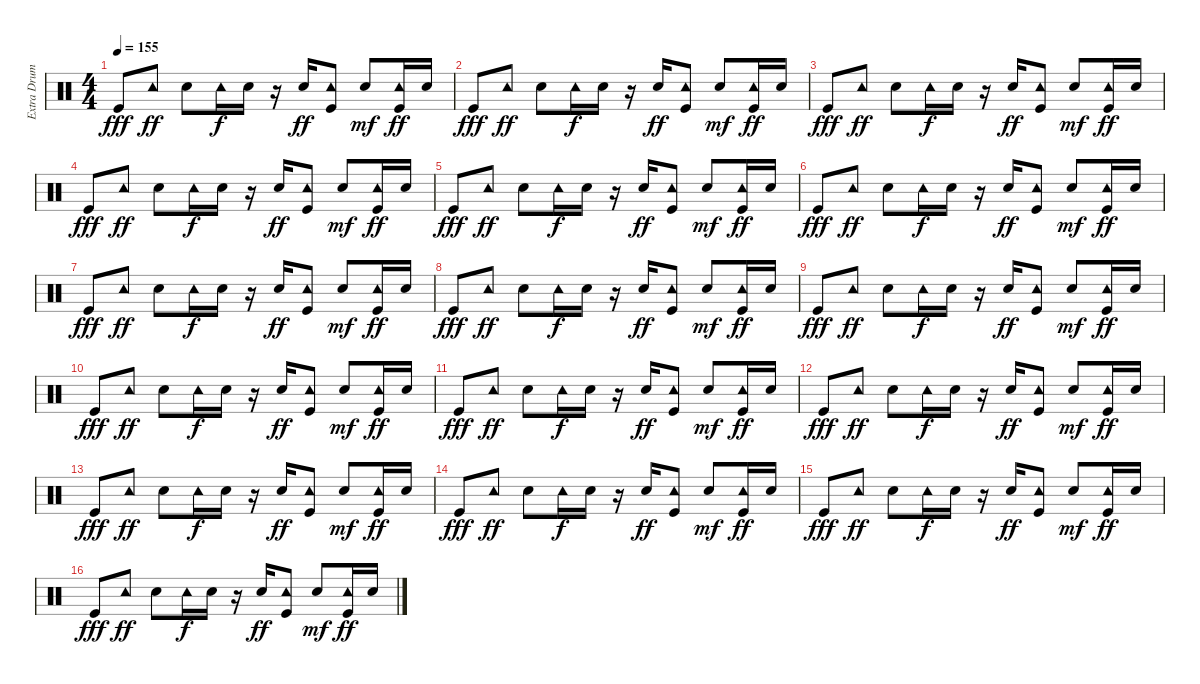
\track ("Extra Drums" "Extra Drum") {instrument percussion}
\staff {score}
\articulation defaults
\ts (4 4)
\tempo 155
\clef neutral
\ks c "Kick (hit)".8{dy fff} "Tambourine (hit)".8{dy ff} "Electric Snare (hit)".8 "Tambourine (hit)".16{dy f} "Electric Snare (hit)".16
r.16 "Electric Snare (hit)".16{dy ff} ("Kick (hit)" "Tambourine (hit)").8 "Electric Snare (hit)".8{dy mf} ("Kick (hit)" "Tambourine (hit)").16{dy ff} "Electric Snare (hit)".16 |
"Kick (hit)".8{dy fff} "Tambourine (hit)".8{dy ff} "Electric Snare (hit)".8 "Tambourine (hit)".16{dy f} "Electric Snare (hit)".16 r.16 "Electric Snare (hit)".16{dy ff} ("Kick (hit)" "Tambourine (hit)").8 "Electric Snare (hit)".8{dy mf} ("Kick (hit)" "Tambourine (hit)").16{dy ff} "Electric Snare (hit)".16 |
"Kick (hit)".8{dy fff} "Tambourine (hit)".8{dy ff} "Electric Snare (hit)".8 "Tambourine (hit)".16{dy f} "Electric Snare (hit)".16 r.16 "Electric Snare (hit)".16{dy ff} ("Kick (hit)" "Tambourine (hit)").8 "Electric Snare (hit)".8{dy mf} ("Kick (hit)" "Tambourine (hit)").16{dy ff} "Electric Snare (hit)".16 |
"Kick (hit)".8{dy fff} "Tambourine (hit)".8{dy ff} "Electric Snare (hit)".8 "Tambourine (hit)".16{dy f} "Electric Snare (hit)".16 r.16 "Electric Snare (hit)".16{dy ff} ("Kick (hit)" "Tambourine (hit)").8 "Electric Snare (hit)".8{dy mf} ("Kick (hit)" "Tambourine (hit)").16{dy ff} "Electric Snare (hit)".16 |
"Kick (hit)".8{dy fff} "Tambourine (hit)".8{dy ff} "Electric Snare (hit)".8 "Tambourine (hit)".16{dy f} "Electric Snare (hit)".16 r.16 "Electric Snare (hit)".16{dy ff} ("Kick (hit)" "Tambourine (hit)").8 "Electric Snare (hit)".8{dy mf} ("Kick (hit)" "Tambourine (hit)").16{dy ff} "Electric Snare (hit)".16 |
"Kick (hit)".8{dy fff} "Tambourine (hit)".8{dy ff} "Electric Snare (hit)".8 "Tambourine (hit)".16{dy f} "Electric Snare (hit)".16 r.16 "Electric Snare (hit)".16{dy ff} ("Kick (hit)" "Tambourine (hit)").8 "Electric Snare (hit)".8{dy mf} ("Kick (hit)" "Tambourine (hit)").16{dy ff} "Electric Snare (hit)".16 |
"Kick (hit)".8{dy fff} "Tambourine (hit)".8{dy ff} "Electric Snare (hit)".8 "Tambourine (hit)".16{dy f} "Electric Snare (hit)".16 r.16 "Electric Snare (hit)".16{dy ff} ("Kick (hit)" "Tambourine (hit)").8 "Electric Snare (hit)".8{dy mf} ("Kick (hit)" "Tambourine (hit)").16{dy ff} "Electric Snare (hit)".16 |
"Kick (hit)".8{dy fff} "Tambourine (hit)".8{dy ff} "Electric Snare (hit)".8 "Tambourine (hit)".16{dy f} "Electric Snare (hit)".16 r.16 "Electric Snare (hit)".16{dy ff} ("Kick (hit)" "Tambourine (hit)").8 "Electric Snare (hit)".8{dy mf} ("Kick (hit)" "Tambourine (hit)").16{dy ff} "Electric Snare (hit)".16 |
"Kick (hit)".8{dy fff} "Tambourine (hit)".8{dy ff} "Electric Snare (hit)".8 "Tambourine (hit)".16{dy f} "Electric Snare (hit)".16 r.16 "Electric Snare (hit)".16{dy ff} ("Kick (hit)" "Tambourine (hit)").8 "Electric Snare (hit)".8{dy mf} ("Kick (hit)" "Tambourine (hit)").16{dy ff} "Electric Snare (hit)".16 |
"Kick (hit)".8{dy fff} "Tambourine (hit)".8{dy ff} "Electric Snare (hit)".8 "Tambourine (hit)".16{dy f} "Electric Snare (hit)".16 r.16 "Electric Snare (hit)".16{dy ff} ("Kick (hit)" "Tambourine (hit)").8 "Electric Snare (hit)".8{dy mf} ("Kick (hit)" "Tambourine (hit)").16{dy ff} "Electric Snare (hit)".16 |
"Kick (hit)".8{dy fff} "Tambourine (hit)".8{dy ff} "Electric Snare (hit)".8 "Tambourine (hit)".16{dy f} "Electric Snare (hit)".16 r.16 "Electric Snare (hit)".16{dy ff} ("Kick (hit)" "Tambourine (hit)").8 "Electric Snare (hit)".8{dy mf} ("Kick (hit)" "Tambourine (hit)").16{dy ff} "Electric Snare (hit)".16 |
"Kick (hit)".8{dy fff} "Tambourine (hit)".8{dy ff} "Electric Snare (hit)".8 "Tambourine (hit)".16{dy f} "Electric Snare (hit)".16 r.16 "Electric Snare (hit)".16{dy ff} ("Kick (hit)" "Tambourine (hit)").8 "Electric Snare (hit)".8{dy mf} ("Kick (hit)" "Tambourine (hit)").16{dy ff} "Electric Snare (hit)".16 |
"Kick (hit)".8{dy fff} "Tambourine (hit)".8{dy ff} "Electric Snare (hit)".8 "Tambourine (hit)".16{dy f} "Electric Snare (hit)".16 r.16 "Electric Snare (hit)".16{dy ff} ("Kick (hit)" "Tambourine (hit)").8 "Electric Snare (hit)".8{dy mf} ("Kick (hit)" "Tambourine (hit)").16{dy ff} "Electric Snare (hit)".16 |
"Kick (hit)".8{dy fff} "Tambourine (hit)".8{dy ff} "Electric Snare (hit)".8 "Tambourine (hit)".16{dy f} "Electric Snare (hit)".16 r.16 "Electric Snare (hit)".16{dy ff} ("Kick (hit)" "Tambourine (hit)").8 "Electric Snare (hit)".8{dy mf} ("Kick (hit)" "Tambourine (hit)").16{dy ff} "Electric Snare (hit)".16 |
"Kick (hit)".8{dy fff} "Tambourine (hit)".8{dy ff} "Electric Snare (hit)".8 "Tambourine (hit)".16{dy f} "Electric Snare (hit)".16 r.16 "Electric Snare (hit)".16{dy ff} ("Kick (hit)" "Tambourine (hit)").8 "Electric Snare (hit)".8{dy mf} ("Kick (hit)" "Tambourine (hit)").16{dy ff} "Electric Snare (hit)".16 |
"Kick (hit)".8{dy fff} "Tambourine (hit)".8{dy ff} "Electric Snare (hit)".8 "Tambourine (hit)".16{dy f} "Electric Snare (hit)".16 r.16 "Electric Snare (hit)".16{dy ff} ("Kick (hit)" "Tambourine (hit)").8 "Electric Snare (hit)".8{dy mf} ("Kick (hit)" "Tambourine (hit)").16{dy ff} "Electric Snare (hit)".16
